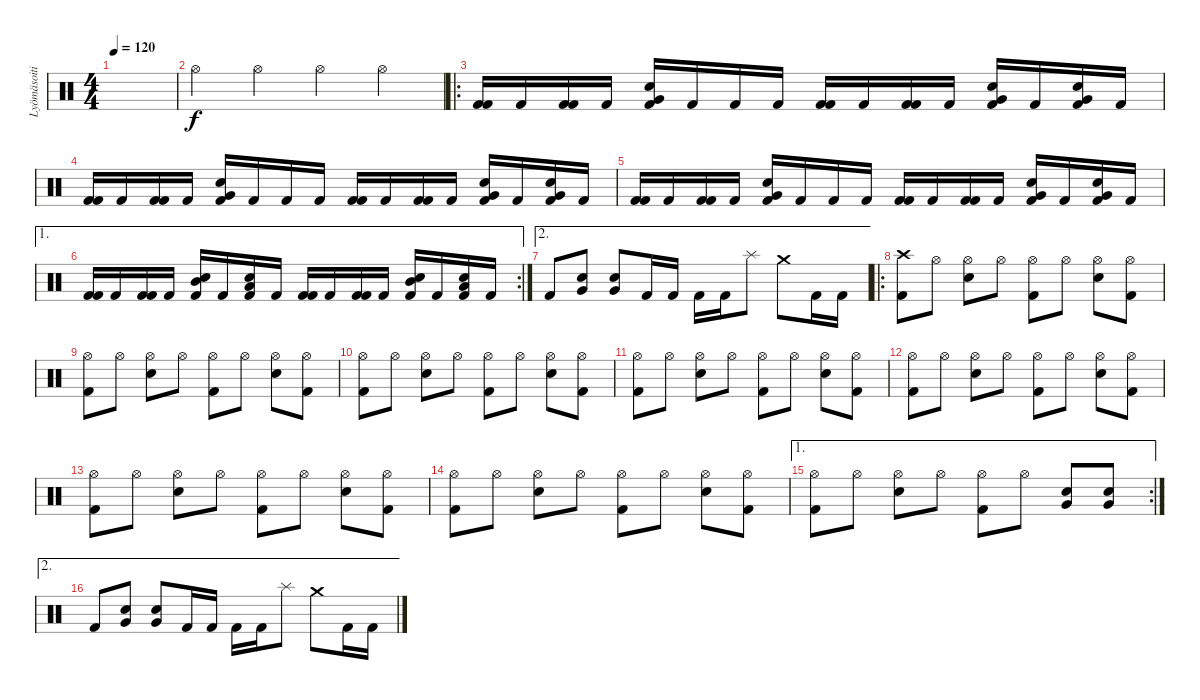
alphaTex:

\track ("Lyömäsoitin" "Lyömäsoiti") {instrument percussion}
\staff {score}
\articulation defaults
\ts (4 4)
\tempo 120
\clef neutral
\ks c
|
"Hi-Hat (open)".4 "Hi-Hat (open)".4 "Hi-Hat (open)".4 "Hi-Hat (open)".4 |
\ro
("Kick (hit) 2" "Kick (hit) 2").16 "Kick (hit) 2".16 ("Kick (hit) 2" "Kick (hit) 2").16 "Kick (hit) 2".16 ("Very Low Tom (hit)" "Snare (hit) 2" "Kick (hit) 2").16 "Kick (hit) 2".16 "Kick (hit) 2".16 "Kick (hit) 2".16 ("Kick (hit) 2" "Kick (hit) 2").16 "Kick (hit) 2".16 ("Kick (hit) 2" "Kick (hit) 2").16 "Kick (hit) 2".16 ("Very Low Tom (hit)" "Snare (hit) 2" "Kick (hit) 2").16 "Kick (hit) 2".16 ("Very Low Tom (hit)" "Snare (hit) 2" "Kick (hit) 2").16 "Kick (hit) 2".16 |
("Kick (hit) 2" "Kick (hit) 2").16 "Kick (hit) 2".16 ("Kick (hit) 2" "Kick (hit) 2").16 "Kick (hit) 2".16 ("Very Low Tom (hit)" "Snare (hit) 2" "Kick (hit) 2").16 "Kick (hit) 2".16 "Kick (hit) 2".16 "Kick (hit) 2".16 ("Kick (hit) 2" "Kick (hit) 2").16 "Kick (hit) 2".16 ("Kick (hit) 2" "Kick (hit) 2").16 "Kick (hit) 2".16 ("Very Low Tom (hit)" "Snare (hit) 2" "Kick (hit) 2").16 "Kick (hit) 2".16 ("Very Low Tom (hit)" "Snare (hit) 2" "Kick (hit) 2").16 "Kick (hit) 2".16 |
("Kick (hit) 2" "Kick (hit) 2").16 "Kick (hit) 2".16 ("Kick (hit) 2" "Kick (hit) 2").16 "Kick (hit) 2".16 ("Very Low Tom (hit)" "Snare (hit) 2" "Kick (hit) 2").16 "Kick (hit) 2".16 "Kick (hit) 2".16 "Kick (hit) 2".16 ("Kick (hit) 2" "Kick (hit) 2").16 "Kick (hit) 2".16 ("Kick (hit) 2" "Kick (hit) 2").16 "Kick (hit) 2".16 ("Very Low Tom (hit)" "Snare (hit) 2" "Kick (hit) 2").16 "Kick (hit) 2".16 ("Very Low Tom (hit)" "Snare (hit) 2" "Kick (hit) 2").16 "Kick (hit) 2".16 |
\ae 1
\rc 2
("Kick (hit) 2" "Kick (hit) 2").16 "Kick (hit) 2".16 ("Kick (hit) 2" "Kick (hit) 2").16 "Kick (hit) 2".16 ("Mid Tom (hit)" "Snare (hit) 2" "Kick (hit) 2").16 "Kick (hit) 2".16 ("Low Tom (hit)" "Snare (hit) 2" "Kick (hit) 2").16 "Kick (hit) 2".16 ("Kick (hit) 2" "Kick (hit) 2").16 "Kick (hit) 2".16 ("Kick (hit) 2" "Kick (hit) 2").16 "Kick (hit) 2".16 ("Mid Tom (hit)" "Snare (hit) 2" "Kick (hit) 2").16 "Kick (hit) 2".16 ("Low Tom (hit)" "Snare (hit) 2" "Kick (hit) 2").16 "Kick (hit) 2".16 |
\ae 2 "Kick (hit) 2".8
("Very Low Tom (hit)" "Snare (hit) 2").8 ("Very Low Tom (hit)" "Snare (hit) 2").8 "Kick (hit) 2".16 "Kick (hit) 2".16 "Kick (hit) 2".16 "Kick (hit) 2".16 "Splash (hit)".8 "Crash medium (hit)".8 "Kick (hit) 2".16 "Kick (hit) 2".16 |
\ro
("Crash high (hit)" "Kick (hit) 2").8 "Hi-Hat (open)".8 ("Hi-Hat (open)" "Snare (hit) 2").8 "Hi-Hat (open)".8 ("Hi-Hat (open)" "Kick (hit) 2").8 "Hi-Hat (open)".8 ("Hi-Hat (open)" "Snare (hit) 2").8 ("Hi-Hat (open)" "Kick (hit) 2").8 |
("Hi-Hat (open)" "Kick (hit) 2").8 "Hi-Hat (open)".8 ("Hi-Hat (open)" "Snare (hit) 2").8 "Hi-Hat (open)".8 ("Hi-Hat (open)" "Kick (hit) 2").8 "Hi-Hat (open)".8 ("Hi-Hat (open)" "Snare (hit) 2").8 ("Hi-Hat (open)" "Kick (hit) 2").8 |
("Hi-Hat (open)" "Kick (hit) 2").8 "Hi-Hat (open)".8 ("Hi-Hat (open)" "Snare (hit) 2").8 "Hi-Hat (open)".8 ("Hi-Hat (open)" "Kick (hit) 2").8 "Hi-Hat (open)".8 ("Hi-Hat (open)" "Snare (hit) 2").8 ("Hi-Hat (open)" "Kick (hit) 2").8 |
("Hi-Hat (open)" "Kick (hit) 2").8 "Hi-Hat (open)".8 ("Hi-Hat (open)" "Snare (hit) 2").8 "Hi-Hat (open)".8 ("Hi-Hat (open)" "Kick (hit) 2").8 "Hi-Hat (open)".8 ("Hi-Hat (open)" "Snare (hit) 2").8 ("Hi-Hat (open)" "Kick (hit) 2").8 |
("Hi-Hat (open)" "Kick (hit) 2").8 "Hi-Hat (open)".8 ("Hi-Hat (open)" "Snare (hit) 2").8 "Hi-Hat (open)".8 ("Hi-Hat (open)" "Kick (hit) 2").8 "Hi-Hat (open)".8 ("Hi-Hat (open)" "Snare (hit) 2").8 ("Hi-Hat (open)" "Kick (hit) 2").8 |
("Hi-Hat (open)" "Kick (hit) 2").8 "Hi-Hat (open)".8 ("Hi-Hat (open)" "Snare (hit) 2").8 "Hi-Hat (open)".8 ("Hi-Hat (open)" "Kick (hit) 2").8 "Hi-Hat (open)".8 ("Hi-Hat (open)" "Snare (hit) 2").8 ("Hi-Hat (open)" "Kick (hit) 2").8 |
("Hi-Hat (open)" "Kick (hit) 2").8 "Hi-Hat (open)".8 ("Hi-Hat (open)" "Snare (hit) 2").8 "Hi-Hat (open)".8 ("Hi-Hat (open)" "Kick (hit) 2").8 "Hi-Hat (open)".8 ("Hi-Hat (open)" "Snare (hit) 2").8 ("Hi-Hat (open)" "Kick (hit) 2").8 |
\ae 1
\rc 2
("Hi-Hat (open)" "Kick (hit) 2").8 "Hi-Hat (open)".8 ("Hi-Hat (open)" "Snare (hit) 2").8 "Hi-Hat (open)".8 ("Hi-Hat (open)" "Kick (hit) 2").8 "Hi-Hat (open)".8 ("Very Low Tom (hit)" "Snare (hit) 2").8 ("Very Low Tom (hit)" "Snare (hit) 2").8 |
\ae 2 "Kick (hit) 2".8
("Very Low Tom (hit)" "Snare (hit) 2").8 ("Very Low Tom (hit)" "Snare (hit) 2").8 "Kick (hit) 2".16 "Kick (hit) 2".16 "Kick (hit) 2".16 "Kick (hit) 2".16 "Splash (hit)".8 "Crash medium (hit)".8 "Kick (hit) 2".16 "Kick (hit) 2".16
